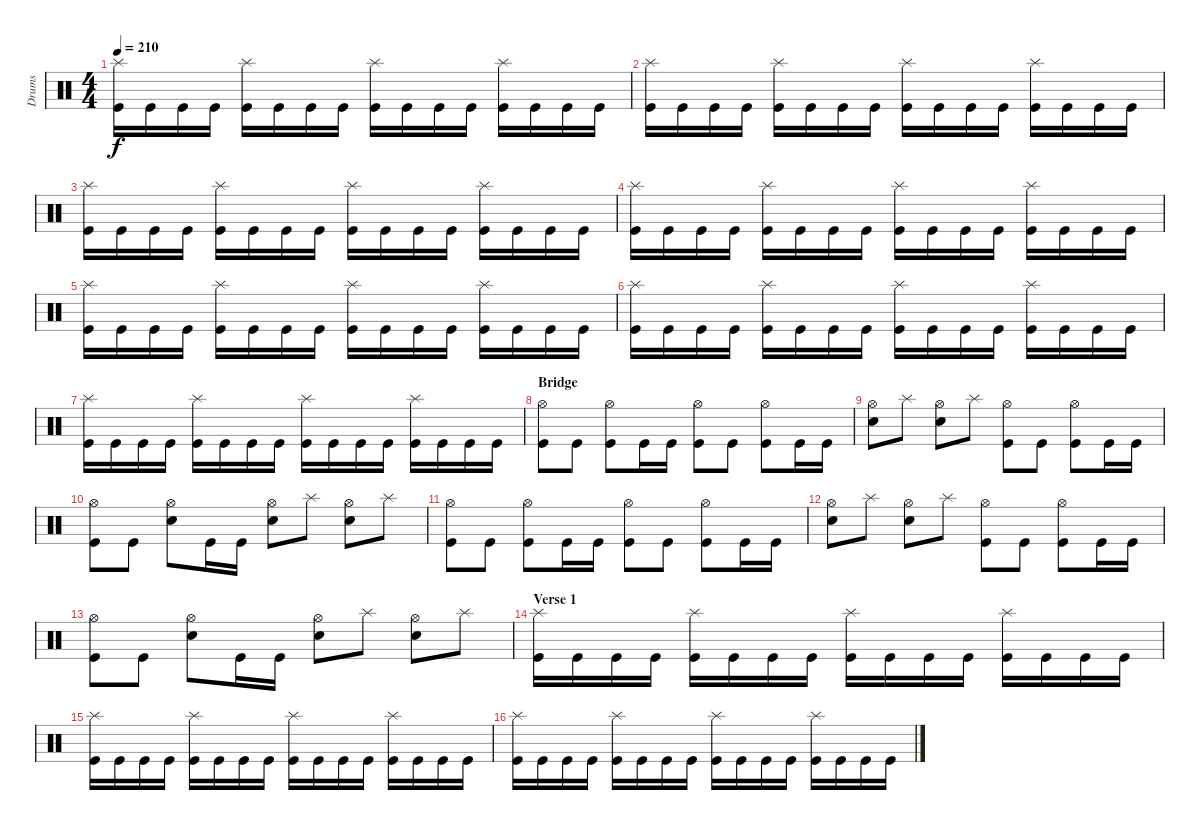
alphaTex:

\track ("Drums" "Drums") {instrument percussion}
\staff {score}
\articulation defaults
\ts (4 4)
\tempo 210
\clef neutral
\ks c
("Splash (hit)" "Kick (hit)").16{dy f} "Kick (hit)".16 "Kick (hit)".16 "Kick (hit)".16 ("Splash (hit)" "Kick (hit)").16 "Kick (hit)".16 "Kick (hit)".16 "Kick (hit)".16 ("Splash (hit)" "Kick (hit)").16 "Kick (hit)".16 "Kick (hit)".16 "Kick (hit)".16 ("Splash (hit)" "Kick (hit)").16 "Kick (hit)".16 "Kick (hit)".16 "Kick (hit)".16 |
("Splash (hit)" "Kick (hit)").16 "Kick (hit)".16 "Kick (hit)".16 "Kick (hit)".16 ("Splash (hit)" "Kick (hit)").16 "Kick (hit)".16 "Kick (hit)".16 "Kick (hit)".16 ("Splash (hit)" "Kick (hit)").16 "Kick (hit)".16 "Kick (hit)".16 "Kick (hit)".16 ("Splash (hit)" "Kick (hit)").16 "Kick (hit)".16 "Kick (hit)".16 "Kick (hit)".16 |
("Splash (hit)" "Kick (hit)").16 "Kick (hit)".16 "Kick (hit)".16 "Kick (hit)".16 ("Splash (hit)" "Kick (hit)").16 "Kick (hit)".16 "Kick (hit)".16 "Kick (hit)".16 ("Splash (hit)" "Kick (hit)").16 "Kick (hit)".16 "Kick (hit)".16 "Kick (hit)".16 ("Splash (hit)" "Kick (hit)").16 "Kick (hit)".16 "Kick (hit)".16 "Kick (hit)".16 |
("Splash (hit)" "Kick (hit)").16 "Kick (hit)".16 "Kick (hit)".16 "Kick (hit)".16 ("Splash (hit)" "Kick (hit)").16 "Kick (hit)".16 "Kick (hit)".16 "Kick (hit)".16 ("Splash (hit)" "Kick (hit)").16 "Kick (hit)".16 "Kick (hit)".16 "Kick (hit)".16 ("Splash (hit)" "Kick (hit)").16 "Kick (hit)".16 "Kick (hit)".16 "Kick (hit)".16 |
("Splash (hit)" "Kick (hit)").16 "Kick (hit)".16 "Kick (hit)".16 "Kick (hit)".16 ("Splash (hit)" "Kick (hit)").16 "Kick (hit)".16 "Kick (hit)".16 "Kick (hit)".16 ("Splash (hit)" "Kick (hit)").16 "Kick (hit)".16 "Kick (hit)".16 "Kick (hit)".16 ("Splash (hit)" "Kick (hit)").16 "Kick (hit)".16 "Kick (hit)".16 "Kick (hit)".16 |
("Splash (hit)" "Kick (hit)").16 "Kick (hit)".16 "Kick (hit)".16 "Kick (hit)".16 ("Splash (hit)" "Kick (hit)").16 "Kick (hit)".16 "Kick (hit)".16 "Kick (hit)".16 ("Splash (hit)" "Kick (hit)").16 "Kick (hit)".16 "Kick (hit)".16 "Kick (hit)".16 ("Splash (hit)" "Kick (hit)").16 "Kick (hit)".16 "Kick (hit)".16 "Kick (hit)".16 |
("Splash (hit)" "Kick (hit)").16 "Kick (hit)".16 "Kick (hit)".16 "Kick (hit)".16 ("Splash (hit)" "Kick (hit)").16 "Kick (hit)".16 "Kick (hit)".16 "Kick (hit)".16 ("Splash (hit)" "Kick (hit)").16 "Kick (hit)".16 "Kick (hit)".16 "Kick (hit)".16 ("Splash (hit)" "Kick (hit)").16 "Kick (hit)".16 "Kick (hit)".16 "Kick (hit)".16 |
\section ("" "Bridge")
("Hi-Hat (open)" "Kick (hit)").8 "Kick (hit)".8 ("Hi-Hat (open)" "Kick (hit)").8 "Kick (hit)".16 "Kick (hit)".16 ("Hi-Hat (open)" "Kick (hit)").8 "Kick (hit)".8 ("Hi-Hat (open)" "Kick (hit)").8 "Kick (hit)".16 "Kick (hit)".16 |
("Hi-Hat (open)" "Electric Snare (hit)").8 "Splash (hit)".8 ("Hi-Hat (open)" "Electric Snare (hit)").8 "Splash (hit)".8 ("Hi-Hat (open)" "Kick (hit)").8 "Kick (hit)".8 ("Hi-Hat (open)" "Kick (hit)").8 "Kick (hit)".16 "Kick (hit)".16 |
("Hi-Hat (open)" "Kick (hit)").8 "Kick (hit)".8 ("Hi-Hat (open)" "Electric Snare (hit)").8 "Kick (hit)".16 "Kick (hit)".16 ("Hi-Hat (open)" "Electric Snare (hit)").8 "Splash (hit)".8 ("Hi-Hat (open)" "Electric Snare (hit)").8 "Splash (hit)".8 |
("Hi-Hat (open)" "Kick (hit)").8 "Kick (hit)".8 ("Hi-Hat (open)" "Kick (hit)").8 "Kick (hit)".16 "Kick (hit)".16 ("Hi-Hat (open)" "Kick (hit)").8 "Kick (hit)".8 ("Hi-Hat (open)" "Kick (hit)").8 "Kick (hit)".16 "Kick (hit)".16 |
("Hi-Hat (open)" "Electric Snare (hit)").8 "Splash (hit)".8 ("Hi-Hat (open)" "Electric Snare (hit)").8 "Splash (hit)".8 ("Hi-Hat (open)" "Kick (hit)").8 "Kick (hit)".8 ("Hi-Hat (open)" "Kick (hit)").8 "Kick (hit)".16 "Kick (hit)".16 |
("Hi-Hat (open)" "Kick (hit)").8 "Kick (hit)".8 ("Hi-Hat (open)" "Electric Snare (hit)").8 "Kick (hit)".16 "Kick (hit)".16 ("Hi-Hat (open)" "Electric Snare (hit)").8 "Splash (hit)".8 ("Hi-Hat (open)" "Electric Snare (hit)").8 "Splash (hit)".8 |
\section ("" "Verse 1")
("Splash (hit)" "Kick (hit)").16 "Kick (hit)".16 "Kick (hit)".16 "Kick (hit)".16 ("Splash (hit)" "Kick (hit)").16 "Kick (hit)".16 "Kick (hit)".16 "Kick (hit)".16 ("Splash (hit)" "Kick (hit)").16 "Kick (hit)".16 "Kick (hit)".16 "Kick (hit)".16 ("Splash (hit)" "Kick (hit)").16 "Kick (hit)".16 "Kick (hit)".16 "Kick (hit)".16 |
("Splash (hit)" "Kick (hit)").16 "Kick (hit)".16 "Kick (hit)".16 "Kick (hit)".16 ("Splash (hit)" "Kick (hit)").16 "Kick (hit)".16 "Kick (hit)".16 "Kick (hit)".16 ("Splash (hit)" "Kick (hit)").16 "Kick (hit)".16 "Kick (hit)".16 "Kick (hit)".16 ("Splash (hit)" "Kick (hit)").16 "Kick (hit)".16 "Kick (hit)".16 "Kick (hit)".16 |
("Splash (hit)" "Kick (hit)").16 "Kick (hit)".16 "Kick (hit)".16 "Kick (hit)".16 ("Splash (hit)" "Kick (hit)").16 "Kick (hit)".16 "Kick (hit)".16 "Kick (hit)".16 ("Splash (hit)" "Kick (hit)").16 "Kick (hit)".16 "Kick (hit)".16 "Kick (hit)".16 ("Splash (hit)" "Kick (hit)").16 "Kick (hit)".16 "Kick (hit)".16 "Kick (hit)".16
